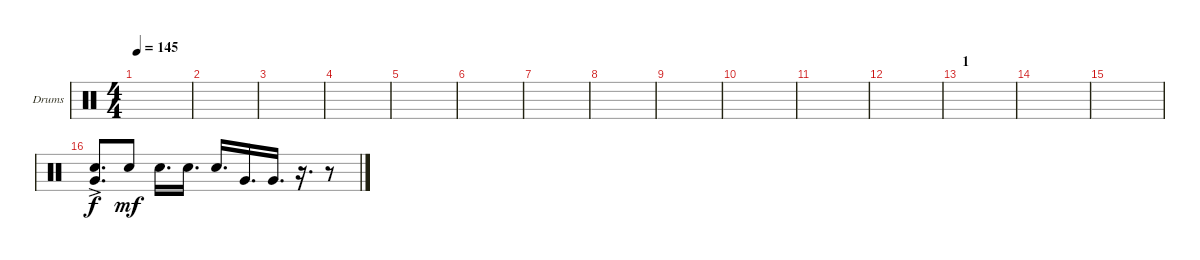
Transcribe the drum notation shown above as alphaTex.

\defaultSystemsLayout 4
\bracketExtendMode groupsimilarinstruments
\firstSystemTrackNameOrientation horizontal
\otherSystemsTrackNameOrientation horizontal
\track ("Drumkit" "Drums") {instrument percussion}
\staff {score}
\articulation defaults
\ts (4 4)
\tempo 145
\clef neutral
\scale
0.472222
\ks c
|
\scale
0.263889 |
\scale
0.263889 |
\scale
0.333333 |
\scale
0.333333 |
\scale
0.333333 |
\scale
0.333333 |
\scale
0.333333 |
\scale
0.333333 |
\scale
0.333333 |
\scale
0.333333 |
\scale
0.333333 |
\section ("" "1")
\scale
0.333333 |
\scale
0.333333 |
\scale
0.333333 |
\scale
0.333333 ("Snare (hit) 2" "Very Low Tom (hit)"{ac}).8{d} "Snare (hit) 2".8{dy mf} "Snare (hit) 2".16{d} "Snare (hit) 2".16{d} "Snare (hit) 2".16{d} "Very Low Tom (hit)".16{d} "Very Low Tom (hit)".16{d} r.16{d} r.8
